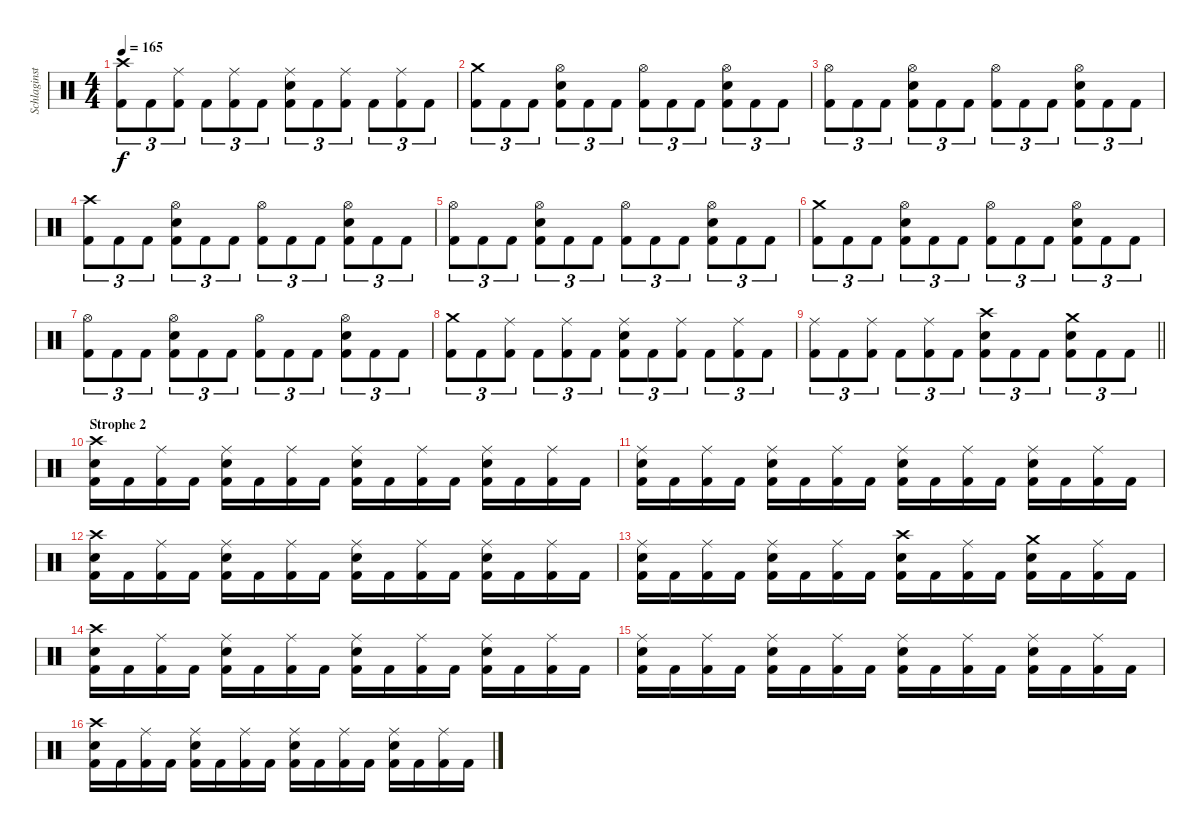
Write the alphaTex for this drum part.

\track ("Schlaginstrumente - Auswahl" "Schlaginst") {instrument percussion}
\staff {score}
\articulation defaults
\ts (4 4)
\tempo 165
\clef neutral
\ks c
("Crash high (hit)" "Kick (hit) 2").8{tu (3 2) dy f} "Kick (hit) 2".8{tu (3 2)} ("Ride (middle)" "Kick (hit) 2").8{tu (3 2)} "Kick (hit) 2".8{tu (3 2)} ("Ride (middle)" "Kick (hit) 2").8{tu (3 2)} "Kick (hit) 2".8{tu (3 2)} ("Ride (middle)" "Electric Snare (hit)" "Kick (hit) 2").8{tu (3 2)} "Kick (hit) 2".8{tu (3 2)} ("Ride (middle)" "Kick (hit) 2").8{tu (3 2)} "Kick (hit) 2".8{tu (3 2)} ("Ride (middle)" "Kick (hit) 2").8{tu (3 2)} "Kick (hit) 2".8{tu (3 2)} |
("Crash medium (hit)" "Kick (hit) 2").8{tu (3 2)} "Kick (hit) 2".8{tu (3 2)} "Kick (hit) 2".8{tu (3 2)} ("Hi-Hat (open)" "Electric Snare (hit)" "Kick (hit) 2").8{tu (3 2)} "Kick (hit) 2".8{tu (3 2)} "Kick (hit) 2".8{tu (3 2)} ("Hi-Hat (open)" "Kick (hit) 2").8{tu (3 2)} "Kick (hit) 2".8{tu (3 2)} "Kick (hit) 2".8{tu (3 2)} ("Hi-Hat (open)" "Electric Snare (hit)" "Kick (hit) 2").8{tu (3 2)} "Kick (hit) 2".8{tu (3 2)} "Kick (hit) 2".8{tu (3 2)} |
("Hi-Hat (open)" "Kick (hit) 2").8{tu (3 2)} "Kick (hit) 2".8{tu (3 2)} "Kick (hit) 2".8{tu (3 2)} ("Hi-Hat (open)" "Electric Snare (hit)" "Kick (hit) 2").8{tu (3 2)} "Kick (hit) 2".8{tu (3 2)} "Kick (hit) 2".8{tu (3 2)} ("Hi-Hat (open)" "Kick (hit) 2").8{tu (3 2)} "Kick (hit) 2".8{tu (3 2)} "Kick (hit) 2".8{tu (3 2)} ("Hi-Hat (open)" "Electric Snare (hit)" "Kick (hit) 2").8{tu (3 2)} "Kick (hit) 2".8{tu (3 2)} "Kick (hit) 2".8{tu (3 2)} |
("Crash high (hit)" "Kick (hit) 2").8{tu (3 2)} "Kick (hit) 2".8{tu (3 2)} "Kick (hit) 2".8{tu (3 2)} ("Hi-Hat (open)" "Electric Snare (hit)" "Kick (hit) 2").8{tu (3 2)} "Kick (hit) 2".8{tu (3 2)} "Kick (hit) 2".8{tu (3 2)} ("Hi-Hat (open)" "Kick (hit) 2").8{tu (3 2)} "Kick (hit) 2".8{tu (3 2)} "Kick (hit) 2".8{tu (3 2)} ("Hi-Hat (open)" "Electric Snare (hit)" "Kick (hit) 2").8{tu (3 2)} "Kick (hit) 2".8{tu (3 2)} "Kick (hit) 2".8{tu (3 2)} |
("Hi-Hat (open)" "Kick (hit) 2").8{tu (3 2)} "Kick (hit) 2".8{tu (3 2)} "Kick (hit) 2".8{tu (3 2)} ("Hi-Hat (open)" "Electric Snare (hit)" "Kick (hit) 2").8{tu (3 2)} "Kick (hit) 2".8{tu (3 2)} "Kick (hit) 2".8{tu (3 2)} ("Hi-Hat (open)" "Kick (hit) 2").8{tu (3 2)} "Kick (hit) 2".8{tu (3 2)} "Kick (hit) 2".8{tu (3 2)} ("Hi-Hat (open)" "Electric Snare (hit)" "Kick (hit) 2").8{tu (3 2)} "Kick (hit) 2".8{tu (3 2)} "Kick (hit) 2".8{tu (3 2)} |
("Crash medium (hit)" "Kick (hit) 2").8{tu (3 2)} "Kick (hit) 2".8{tu (3 2)} "Kick (hit) 2".8{tu (3 2)} ("Hi-Hat (open)" "Electric Snare (hit)" "Kick (hit) 2").8{tu (3 2)} "Kick (hit) 2".8{tu (3 2)} "Kick (hit) 2".8{tu (3 2)} ("Hi-Hat (open)" "Kick (hit) 2").8{tu (3 2)} "Kick (hit) 2".8{tu (3 2)} "Kick (hit) 2".8{tu (3 2)} ("Hi-Hat (open)" "Electric Snare (hit)" "Kick (hit) 2").8{tu (3 2)} "Kick (hit) 2".8{tu (3 2)} "Kick (hit) 2".8{tu (3 2)} |
("Hi-Hat (open)" "Kick (hit) 2").8{tu (3 2)} "Kick (hit) 2".8{tu (3 2)} "Kick (hit) 2".8{tu (3 2)} ("Hi-Hat (open)" "Electric Snare (hit)" "Kick (hit) 2").8{tu (3 2)} "Kick (hit) 2".8{tu (3 2)} "Kick (hit) 2".8{tu (3 2)} ("Hi-Hat (open)" "Kick (hit) 2").8{tu (3 2)} "Kick (hit) 2".8{tu (3 2)} "Kick (hit) 2".8{tu (3 2)} ("Hi-Hat (open)" "Electric Snare (hit)" "Kick (hit) 2").8{tu (3 2)} "Kick (hit) 2".8{tu (3 2)} "Kick (hit) 2".8{tu (3 2)} |
("Crash medium (hit)" "Kick (hit) 2").8{tu (3 2)} "Kick (hit) 2".8{tu (3 2)} ("Ride (middle)" "Kick (hit) 2").8{tu (3 2)} "Kick (hit) 2".8{tu (3 2)} ("Ride (middle)" "Kick (hit) 2").8{tu (3 2)} "Kick (hit) 2".8{tu (3 2)} ("Ride (middle)" "Electric Snare (hit)" "Kick (hit) 2").8{tu (3 2)} "Kick (hit) 2".8{tu (3 2)} ("Ride (middle)" "Kick (hit) 2").8{tu (3 2)} "Kick (hit) 2".8{tu (3 2)} ("Ride (middle)" "Kick (hit) 2").8{tu (3 2)} "Kick (hit) 2".8{tu (3 2)} |
\barLineRight lightlight
("Ride (middle)" "Kick (hit) 2").8{tu (3 2)} "Kick (hit) 2".8{tu (3 2)} ("Ride (middle)" "Kick (hit) 2").8{tu (3 2)} "Kick (hit) 2".8{tu (3 2)} ("Ride (middle)" "Kick (hit) 2").8{tu (3 2)} "Kick (hit) 2".8{tu (3 2)} ("Crash high (hit)" "Electric Snare (hit)" "Kick (hit) 2").8{tu (3 2)} "Kick (hit) 2".8{tu (3 2)} "Kick (hit) 2".8{tu (3 2)} ("Crash medium (hit)" "Electric Snare (hit)" "Kick (hit) 2").8{tu (3 2)} "Kick (hit) 2".8{tu (3 2)} "Kick (hit) 2".8{tu (3 2)} |
\section ("" "Strophe 2")
("Crash high (hit)" "Electric Snare (hit)" "Kick (hit) 2").16 "Kick (hit) 2".16 ("Ride (middle)" "Kick (hit) 2").16 "Kick (hit) 2".16 ("Ride (middle)" "Electric Snare (hit)" "Kick (hit) 2").16 "Kick (hit) 2".16 ("Ride (middle)" "Kick (hit) 2").16 "Kick (hit) 2".16 ("Ride (middle)" "Electric Snare (hit)" "Kick (hit) 2").16 "Kick (hit) 2".16 ("Ride (middle)" "Kick (hit) 2").16 "Kick (hit) 2".16 ("Ride (middle)" "Electric Snare (hit)" "Kick (hit) 2").16 "Kick (hit) 2".16 ("Ride (middle)" "Kick (hit) 2").16 "Kick (hit) 2".16 |
("Ride (middle)" "Electric Snare (hit)" "Kick (hit) 2").16 "Kick (hit) 2".16 ("Ride (middle)" "Kick (hit) 2").16 "Kick (hit) 2".16 ("Ride (middle)" "Electric Snare (hit)" "Kick (hit) 2").16 "Kick (hit) 2".16 ("Ride (middle)" "Kick (hit) 2").16 "Kick (hit) 2".16 ("Ride (middle)" "Electric Snare (hit)" "Kick (hit) 2").16 "Kick (hit) 2".16 ("Ride (middle)" "Kick (hit) 2").16 "Kick (hit) 2".16 ("Ride (middle)" "Electric Snare (hit)" "Kick (hit) 2").16 "Kick (hit) 2".16 ("Ride (middle)" "Kick (hit) 2").16 "Kick (hit) 2".16 |
("Crash high (hit)" "Electric Snare (hit)" "Kick (hit) 2").16 "Kick (hit) 2".16 ("Ride (middle)" "Kick (hit) 2").16 "Kick (hit) 2".16 ("Ride (middle)" "Electric Snare (hit)" "Kick (hit) 2").16 "Kick (hit) 2".16 ("Ride (middle)" "Kick (hit) 2").16 "Kick (hit) 2".16 ("Ride (middle)" "Electric Snare (hit)" "Kick (hit) 2").16 "Kick (hit) 2".16 ("Ride (middle)" "Kick (hit) 2").16 "Kick (hit) 2".16 ("Ride (middle)" "Electric Snare (hit)" "Kick (hit) 2").16 "Kick (hit) 2".16 ("Ride (middle)" "Kick (hit) 2").16 "Kick (hit) 2".16 |
("Ride (middle)" "Electric Snare (hit)" "Kick (hit) 2").16 "Kick (hit) 2".16 ("Ride (middle)" "Kick (hit) 2").16 "Kick (hit) 2".16 ("Ride (middle)" "Electric Snare (hit)" "Kick (hit) 2").16 "Kick (hit) 2".16 ("Ride (middle)" "Kick (hit) 2").16 "Kick (hit) 2".16 ("Crash high (hit)" "Electric Snare (hit)" "Kick (hit) 2").16 "Kick (hit) 2".16 ("Ride (middle)" "Kick (hit) 2").16 "Kick (hit) 2".16 ("Crash medium (hit)" "Electric Snare (hit)" "Kick (hit) 2").16 "Kick (hit) 2".16 ("Ride (middle)" "Kick (hit) 2").16 "Kick (hit) 2".16 |
("Crash high (hit)" "Electric Snare (hit)" "Kick (hit) 2").16 "Kick (hit) 2".16 ("Ride (middle)" "Kick (hit) 2").16 "Kick (hit) 2".16 ("Ride (middle)" "Electric Snare (hit)" "Kick (hit) 2").16 "Kick (hit) 2".16 ("Ride (middle)" "Kick (hit) 2").16 "Kick (hit) 2".16 ("Ride (middle)" "Electric Snare (hit)" "Kick (hit) 2").16 "Kick (hit) 2".16 ("Ride (middle)" "Kick (hit) 2").16 "Kick (hit) 2".16 ("Ride (middle)" "Electric Snare (hit)" "Kick (hit) 2").16 "Kick (hit) 2".16 ("Ride (middle)" "Kick (hit) 2").16 "Kick (hit) 2".16 |
("Ride (middle)" "Electric Snare (hit)" "Kick (hit) 2").16 "Kick (hit) 2".16 ("Ride (middle)" "Kick (hit) 2").16 "Kick (hit) 2".16 ("Ride (middle)" "Electric Snare (hit)" "Kick (hit) 2").16 "Kick (hit) 2".16 ("Ride (middle)" "Kick (hit) 2").16 "Kick (hit) 2".16 ("Ride (middle)" "Electric Snare (hit)" "Kick (hit) 2").16 "Kick (hit) 2".16 ("Ride (middle)" "Kick (hit) 2").16 "Kick (hit) 2".16 ("Ride (middle)" "Electric Snare (hit)" "Kick (hit) 2").16 "Kick (hit) 2".16 ("Ride (middle)" "Kick (hit) 2").16 "Kick (hit) 2".16 |
("Crash high (hit)" "Electric Snare (hit)" "Kick (hit) 2").16 "Kick (hit) 2".16 ("Ride (middle)" "Kick (hit) 2").16 "Kick (hit) 2".16 ("Ride (middle)" "Electric Snare (hit)" "Kick (hit) 2").16 "Kick (hit) 2".16 ("Ride (middle)" "Kick (hit) 2").16 "Kick (hit) 2".16 ("Ride (middle)" "Electric Snare (hit)" "Kick (hit) 2").16 "Kick (hit) 2".16 ("Ride (middle)" "Kick (hit) 2").16 "Kick (hit) 2".16 ("Ride (middle)" "Electric Snare (hit)" "Kick (hit) 2").16 "Kick (hit) 2".16 ("Ride (middle)" "Kick (hit) 2").16 "Kick (hit) 2".16
